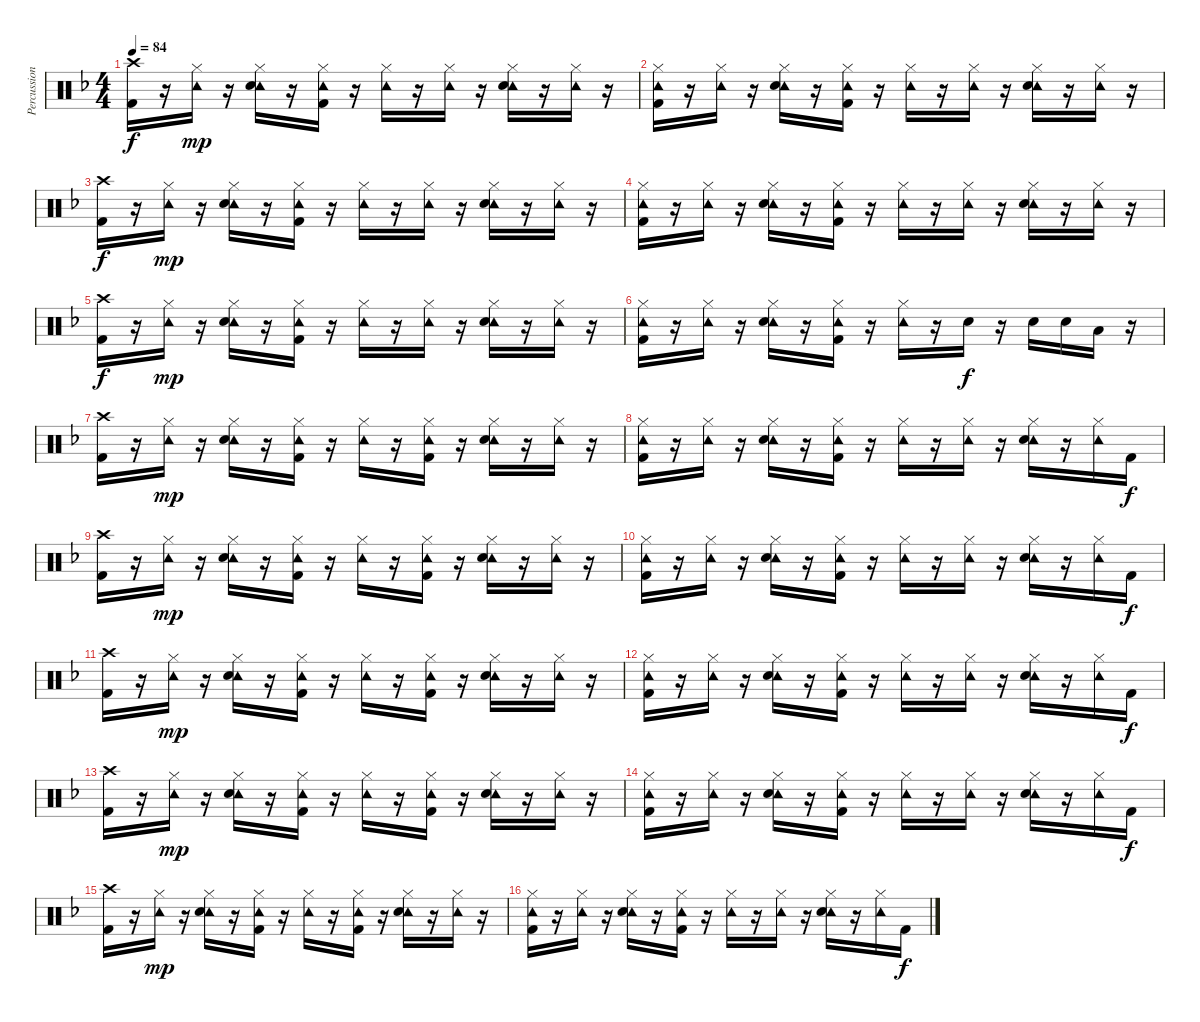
\track ("Percussion" "Percussion") {instrument percussion}
\staff {score}
\articulation defaults
\ts (4 4)
\tempo 84
\clef neutral
\ks f
("Crash high (hit)" "Kick (hit) 2").16{dy f} r.16 ("Hi-Hat (closed)" "Tambourine (hit)").16{dy mp} r.16 ("Hi-Hat (closed)" "Tambourine (hit)" "Snare (hit) 2").16 r.16 ("Hi-Hat (closed)" "Tambourine (hit)" "Kick (hit) 2").16 r.16 ("Hi-Hat (closed)" "Tambourine (hit)").16 r.16 ("Hi-Hat (closed)" "Tambourine (hit)").16 r.16 ("Hi-Hat (closed)" "Tambourine (hit)" "Snare (hit) 2").16 r.16 ("Hi-Hat (closed)" "Tambourine (hit)").16 r.16 |
("Hi-Hat (closed)" "Tambourine (hit)" "Kick (hit) 2").16 r.16 ("Hi-Hat (closed)" "Tambourine (hit)").16 r.16 ("Hi-Hat (closed)" "Tambourine (hit)" "Snare (hit) 2").16 r.16 ("Hi-Hat (closed)" "Tambourine (hit)" "Kick (hit) 2").16 r.16 ("Hi-Hat (closed)" "Tambourine (hit)").16 r.16 ("Hi-Hat (closed)" "Tambourine (hit)").16 r.16 ("Hi-Hat (closed)" "Tambourine (hit)" "Snare (hit) 2").16 r.16 ("Hi-Hat (closed)" "Tambourine (hit)").16 r.16 |
("Crash high (hit)" "Kick (hit) 2").16{dy f} r.16 ("Hi-Hat (closed)" "Tambourine (hit)").16{dy mp} r.16 ("Hi-Hat (closed)" "Tambourine (hit)" "Snare (hit) 2").16 r.16 ("Hi-Hat (closed)" "Tambourine (hit)" "Kick (hit) 2").16 r.16 ("Hi-Hat (closed)" "Tambourine (hit)").16 r.16 ("Hi-Hat (closed)" "Tambourine (hit)").16 r.16 ("Hi-Hat (closed)" "Tambourine (hit)" "Snare (hit) 2").16 r.16 ("Hi-Hat (closed)" "Tambourine (hit)").16 r.16 |
("Hi-Hat (closed)" "Tambourine (hit)" "Kick (hit) 2").16 r.16 ("Hi-Hat (closed)" "Tambourine (hit)").16 r.16 ("Hi-Hat (closed)" "Tambourine (hit)" "Snare (hit) 2").16 r.16 ("Hi-Hat (closed)" "Tambourine (hit)" "Kick (hit) 2").16 r.16 ("Hi-Hat (closed)" "Tambourine (hit)").16 r.16 ("Hi-Hat (closed)" "Tambourine (hit)").16 r.16 ("Hi-Hat (closed)" "Tambourine (hit)" "Snare (hit) 2").16 r.16 ("Hi-Hat (closed)" "Tambourine (hit)").16 r.16 |
("Crash high (hit)" "Kick (hit) 2").16{dy f} r.16 ("Hi-Hat (closed)" "Tambourine (hit)").16{dy mp} r.16 ("Hi-Hat (closed)" "Tambourine (hit)" "Snare (hit) 2").16 r.16 ("Hi-Hat (closed)" "Tambourine (hit)" "Kick (hit) 2").16 r.16 ("Hi-Hat (closed)" "Tambourine (hit)").16 r.16 ("Hi-Hat (closed)" "Tambourine (hit)").16 r.16 ("Hi-Hat (closed)" "Tambourine (hit)" "Snare (hit) 2").16 r.16 ("Hi-Hat (closed)" "Tambourine (hit)").16 r.16 |
("Hi-Hat (closed)" "Tambourine (hit)" "Kick (hit) 2").16 r.16 ("Hi-Hat (closed)" "Tambourine (hit)").16 r.16 ("Hi-Hat (closed)" "Tambourine (hit)" "Snare (hit) 2").16 r.16 ("Hi-Hat (closed)" "Tambourine (hit)" "Kick (hit) 2").16 r.16 ("Hi-Hat (closed)" "Tambourine (hit)").16 r.16 "Snare (hit) 2".16{dy f} r.16 "Snare (hit) 2".16 "Snare (hit) 2".16 "Low Tom (hit)".16 r.16 |
("Crash high (hit)" "Kick (hit) 2").16 r.16 ("Hi-Hat (closed)" "Tambourine (hit)").16{dy mp} r.16 ("Hi-Hat (closed)" "Tambourine (hit)" "Snare (hit) 2").16 r.16 ("Hi-Hat (closed)" "Tambourine (hit)" "Kick (hit) 2").16 r.16 ("Hi-Hat (closed)" "Tambourine (hit)").16 r.16 ("Hi-Hat (closed)" "Tambourine (hit)" "Kick (hit) 2").16 r.16 ("Hi-Hat (closed)" "Tambourine (hit)" "Snare (hit) 2").16 r.16 ("Hi-Hat (closed)" "Tambourine (hit)").16 r.16 |
("Hi-Hat (closed)" "Tambourine (hit)" "Kick (hit) 2").16 r.16 ("Hi-Hat (closed)" "Tambourine (hit)").16 r.16 ("Hi-Hat (closed)" "Tambourine (hit)" "Snare (hit) 2").16 r.16 ("Hi-Hat (closed)" "Tambourine (hit)" "Kick (hit) 2").16 r.16 ("Hi-Hat (closed)" "Tambourine (hit)").16 r.16 ("Hi-Hat (closed)" "Tambourine (hit)").16 r.16 ("Hi-Hat (closed)" "Tambourine (hit)" "Snare (hit) 2").16 r.16 ("Hi-Hat (closed)" "Tambourine (hit)").16 "Kick (hit) 2".16{dy f} |
("Crash high (hit)" "Kick (hit) 2").16{volume 8} r.16 ("Hi-Hat (closed)" "Tambourine (hit)").16{dy mp} r.16 ("Hi-Hat (closed)" "Tambourine (hit)" "Snare (hit) 2").16 r.16 ("Hi-Hat (closed)" "Tambourine (hit)" "Kick (hit) 2").16 r.16 ("Hi-Hat (closed)" "Tambourine (hit)").16 r.16 ("Hi-Hat (closed)" "Tambourine (hit)" "Kick (hit) 2").16 r.16 ("Hi-Hat (closed)" "Tambourine (hit)" "Snare (hit) 2").16 r.16 ("Hi-Hat (closed)" "Tambourine (hit)").16 r.16 |
("Hi-Hat (closed)" "Tambourine (hit)" "Kick (hit) 2").16 r.16 ("Hi-Hat (closed)" "Tambourine (hit)").16 r.16 ("Hi-Hat (closed)" "Tambourine (hit)" "Snare (hit) 2").16 r.16 ("Hi-Hat (closed)" "Tambourine (hit)" "Kick (hit) 2").16 r.16 ("Hi-Hat (closed)" "Tambourine (hit)").16 r.16 ("Hi-Hat (closed)" "Tambourine (hit)").16 r.16 ("Hi-Hat (closed)" "Tambourine (hit)" "Snare (hit) 2").16 r.16 ("Hi-Hat (closed)" "Tambourine (hit)").16 "Kick (hit) 2".16{dy f} |
("Crash high (hit)" "Kick (hit) 2").16{volume 7} r.16 ("Hi-Hat (closed)" "Tambourine (hit)").16{dy mp} r.16 ("Hi-Hat (closed)" "Tambourine (hit)" "Snare (hit) 2").16 r.16 ("Hi-Hat (closed)" "Tambourine (hit)" "Kick (hit) 2").16 r.16 ("Hi-Hat (closed)" "Tambourine (hit)").16 r.16 ("Hi-Hat (closed)" "Tambourine (hit)" "Kick (hit) 2").16 r.16 ("Hi-Hat (closed)" "Tambourine (hit)" "Snare (hit) 2").16 r.16 ("Hi-Hat (closed)" "Tambourine (hit)").16 r.16 |
("Hi-Hat (closed)" "Tambourine (hit)" "Kick (hit) 2").16{volume 7} r.16 ("Hi-Hat (closed)" "Tambourine (hit)").16 r.16 ("Hi-Hat (closed)" "Tambourine (hit)" "Snare (hit) 2").16 r.16 ("Hi-Hat (closed)" "Tambourine (hit)" "Kick (hit) 2").16 r.16 ("Hi-Hat (closed)" "Tambourine (hit)").16 r.16 ("Hi-Hat (closed)" "Tambourine (hit)").16 r.16 ("Hi-Hat (closed)" "Tambourine (hit)" "Snare (hit) 2").16 r.16 ("Hi-Hat (closed)" "Tambourine (hit)").16 "Kick (hit) 2".16{dy f} |
("Crash high (hit)" "Kick (hit) 2").16{volume 6} r.16 ("Hi-Hat (closed)" "Tambourine (hit)").16{dy mp} r.16 ("Hi-Hat (closed)" "Tambourine (hit)" "Snare (hit) 2").16 r.16 ("Hi-Hat (closed)" "Tambourine (hit)" "Kick (hit) 2").16 r.16 ("Hi-Hat (closed)" "Tambourine (hit)").16 r.16 ("Hi-Hat (closed)" "Tambourine (hit)" "Kick (hit) 2").16 r.16 ("Hi-Hat (closed)" "Tambourine (hit)" "Snare (hit) 2").16 r.16 ("Hi-Hat (closed)" "Tambourine (hit)").16 r.16 |
("Hi-Hat (closed)" "Tambourine (hit)" "Kick (hit) 2").16{volume 5} r.16 ("Hi-Hat (closed)" "Tambourine (hit)").16 r.16 ("Hi-Hat (closed)" "Tambourine (hit)" "Snare (hit) 2").16 r.16 ("Hi-Hat (closed)" "Tambourine (hit)" "Kick (hit) 2").16 r.16 ("Hi-Hat (closed)" "Tambourine (hit)").16 r.16 ("Hi-Hat (closed)" "Tambourine (hit)").16 r.16 ("Hi-Hat (closed)" "Tambourine (hit)" "Snare (hit) 2").16 r.16 ("Hi-Hat (closed)" "Tambourine (hit)").16 "Kick (hit) 2".16{dy f} |
("Crash high (hit)" "Kick (hit) 2").16{volume 5} r.16 ("Hi-Hat (closed)" "Tambourine (hit)").16{dy mp} r.16 ("Hi-Hat (closed)" "Tambourine (hit)" "Snare (hit) 2").16 r.16 ("Hi-Hat (closed)" "Tambourine (hit)" "Kick (hit) 2").16 r.16 ("Hi-Hat (closed)" "Tambourine (hit)").16 r.16 ("Hi-Hat (closed)" "Tambourine (hit)" "Kick (hit) 2").16 r.16 ("Hi-Hat (closed)" "Tambourine (hit)" "Snare (hit) 2").16 r.16 ("Hi-Hat (closed)" "Tambourine (hit)").16 r.16 |
("Hi-Hat (closed)" "Tambourine (hit)" "Kick (hit) 2").16{volume 4} r.16 ("Hi-Hat (closed)" "Tambourine (hit)").16 r.16 ("Hi-Hat (closed)" "Tambourine (hit)" "Snare (hit) 2").16 r.16 ("Hi-Hat (closed)" "Tambourine (hit)" "Kick (hit) 2").16 r.16 ("Hi-Hat (closed)" "Tambourine (hit)").16 r.16 ("Hi-Hat (closed)" "Tambourine (hit)").16 r.16 ("Hi-Hat (closed)" "Tambourine (hit)" "Snare (hit) 2").16 r.16 ("Hi-Hat (closed)" "Tambourine (hit)").16 "Kick (hit) 2".16{dy f}
